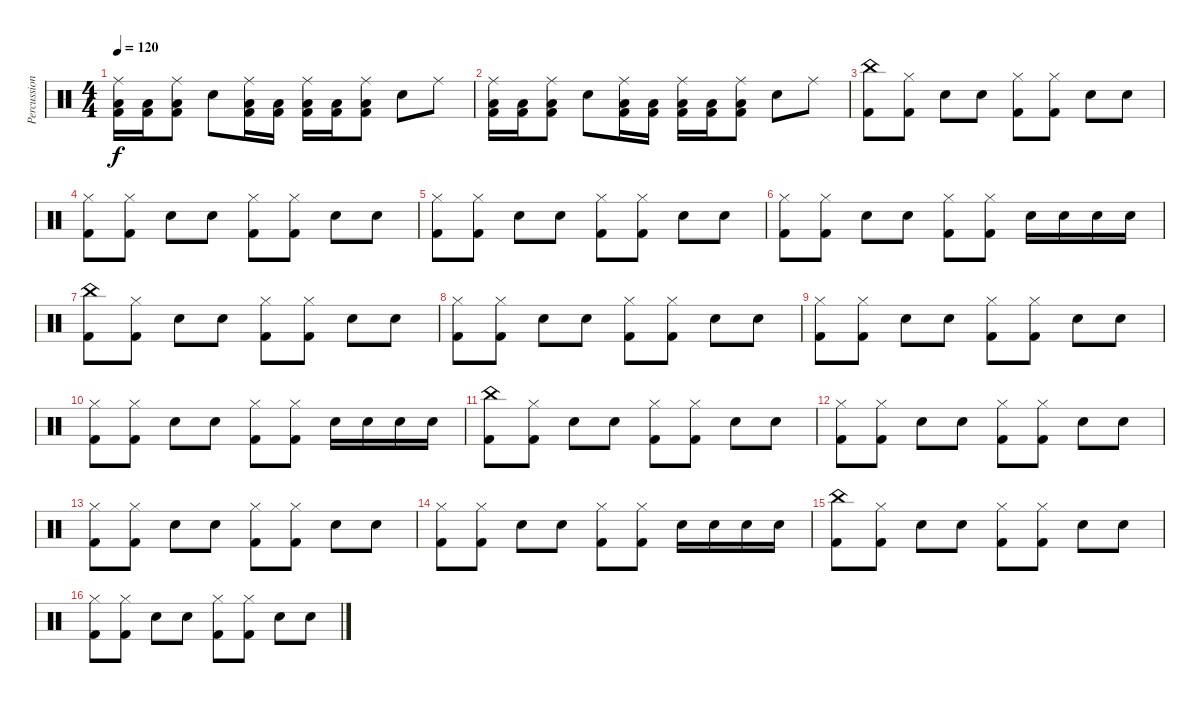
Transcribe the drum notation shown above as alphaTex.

\track ("Percussion" "Percussion") {instrument percussion}
\staff {score}
\articulation defaults
\ts (4 4)
\tempo 120
\clef neutral
\ks c
("Ride (middle)" "Low Floor Tom (hit)" "Kick (hit) 2").16{dy f} ("Low Floor Tom (hit)" "Kick (hit) 2").16 ("Ride (middle)" "Low Floor Tom (hit)" "Kick (hit) 2").8 "Electric Snare (hit)".8 ("Ride (middle)" "Low Floor Tom (hit)" "Kick (hit) 2").16 ("Low Floor Tom (hit)" "Kick (hit) 2").16 ("Ride (middle)" "Low Floor Tom (hit)" "Kick (hit) 2").16 ("Low Floor Tom (hit)" "Kick (hit) 2").16 ("Ride (middle)" "Low Floor Tom (hit)" "Kick (hit) 2").8 "Electric Snare (hit)".8 "Ride (middle)".8 |
("Ride (middle)" "Low Floor Tom (hit)" "Kick (hit) 2").16 ("Low Floor Tom (hit)" "Kick (hit) 2").16 ("Ride (middle)" "Low Floor Tom (hit)" "Kick (hit) 2").8 "Electric Snare (hit)".8 ("Ride (middle)" "Low Floor Tom (hit)" "Kick (hit) 2").16 ("Low Floor Tom (hit)" "Kick (hit) 2").16 ("Ride (middle)" "Low Floor Tom (hit)" "Kick (hit) 2").16 ("Low Floor Tom (hit)" "Kick (hit) 2").16 ("Ride (middle)" "Low Floor Tom (hit)" "Kick (hit) 2").8 "Electric Snare (hit)".8 "Ride (middle)".8 |
("China (hit)" "Kick (hit) 2").8 ("Hi-Hat (closed)" "Kick (hit) 2").8 "Electric Snare (hit)".8 "Electric Snare (hit)".8 ("Hi-Hat (closed)" "Kick (hit) 2").8 ("Hi-Hat (closed)" "Kick (hit) 2").8 "Electric Snare (hit)".8 "Electric Snare (hit)".8 |
("Hi-Hat (closed)" "Kick (hit) 2").8 ("Hi-Hat (closed)" "Kick (hit) 2").8 "Electric Snare (hit)".8 "Electric Snare (hit)".8 ("Hi-Hat (closed)" "Kick (hit) 2").8 ("Hi-Hat (closed)" "Kick (hit) 2").8 "Electric Snare (hit)".8 "Electric Snare (hit)".8 |
("Hi-Hat (closed)" "Kick (hit) 2").8 ("Hi-Hat (closed)" "Kick (hit) 2").8 "Electric Snare (hit)".8 "Electric Snare (hit)".8 ("Hi-Hat (closed)" "Kick (hit) 2").8 ("Hi-Hat (closed)" "Kick (hit) 2").8 "Electric Snare (hit)".8 "Electric Snare (hit)".8 |
("Hi-Hat (closed)" "Kick (hit) 2").8 ("Hi-Hat (closed)" "Kick (hit) 2").8 "Electric Snare (hit)".8 "Electric Snare (hit)".8 ("Hi-Hat (closed)" "Kick (hit) 2").8 ("Hi-Hat (closed)" "Kick (hit) 2").8 "Electric Snare (hit)".16 "Electric Snare (hit)".16 "Electric Snare (hit)".16 "Electric Snare (hit)".16 |
("China (hit)" "Kick (hit) 2").8 ("Hi-Hat (closed)" "Kick (hit) 2").8 "Electric Snare (hit)".8 "Electric Snare (hit)".8 ("Hi-Hat (closed)" "Kick (hit) 2").8 ("Hi-Hat (closed)" "Kick (hit) 2").8 "Electric Snare (hit)".8 "Electric Snare (hit)".8 |
("Hi-Hat (closed)" "Kick (hit) 2").8 ("Hi-Hat (closed)" "Kick (hit) 2").8 "Electric Snare (hit)".8 "Electric Snare (hit)".8 ("Hi-Hat (closed)" "Kick (hit) 2").8 ("Hi-Hat (closed)" "Kick (hit) 2").8 "Electric Snare (hit)".8 "Electric Snare (hit)".8 |
("Hi-Hat (closed)" "Kick (hit) 2").8 ("Hi-Hat (closed)" "Kick (hit) 2").8 "Electric Snare (hit)".8 "Electric Snare (hit)".8 ("Hi-Hat (closed)" "Kick (hit) 2").8 ("Hi-Hat (closed)" "Kick (hit) 2").8 "Electric Snare (hit)".8 "Electric Snare (hit)".8 |
("Hi-Hat (closed)" "Kick (hit) 2").8 ("Hi-Hat (closed)" "Kick (hit) 2").8 "Electric Snare (hit)".8 "Electric Snare (hit)".8 ("Hi-Hat (closed)" "Kick (hit) 2").8 ("Hi-Hat (closed)" "Kick (hit) 2").8 "Electric Snare (hit)".16 "Electric Snare (hit)".16 "Electric Snare (hit)".16 "Electric Snare (hit)".16 |
("China (hit)" "Kick (hit) 2").8 ("Hi-Hat (closed)" "Kick (hit) 2").8 "Electric Snare (hit)".8 "Electric Snare (hit)".8 ("Hi-Hat (closed)" "Kick (hit) 2").8 ("Hi-Hat (closed)" "Kick (hit) 2").8 "Electric Snare (hit)".8 "Electric Snare (hit)".8 |
("Hi-Hat (closed)" "Kick (hit) 2").8 ("Hi-Hat (closed)" "Kick (hit) 2").8 "Electric Snare (hit)".8 "Electric Snare (hit)".8 ("Hi-Hat (closed)" "Kick (hit) 2").8 ("Hi-Hat (closed)" "Kick (hit) 2").8 "Electric Snare (hit)".8 "Electric Snare (hit)".8 |
("Hi-Hat (closed)" "Kick (hit) 2").8 ("Hi-Hat (closed)" "Kick (hit) 2").8 "Electric Snare (hit)".8 "Electric Snare (hit)".8 ("Hi-Hat (closed)" "Kick (hit) 2").8 ("Hi-Hat (closed)" "Kick (hit) 2").8 "Electric Snare (hit)".8 "Electric Snare (hit)".8 |
("Hi-Hat (closed)" "Kick (hit) 2").8 ("Hi-Hat (closed)" "Kick (hit) 2").8 "Electric Snare (hit)".8 "Electric Snare (hit)".8 ("Hi-Hat (closed)" "Kick (hit) 2").8 ("Hi-Hat (closed)" "Kick (hit) 2").8 "Electric Snare (hit)".16 "Electric Snare (hit)".16 "Electric Snare (hit)".16 "Electric Snare (hit)".16 |
("China (hit)" "Kick (hit) 2").8 ("Hi-Hat (closed)" "Kick (hit) 2").8 "Electric Snare (hit)".8 "Electric Snare (hit)".8 ("Hi-Hat (closed)" "Kick (hit) 2").8 ("Hi-Hat (closed)" "Kick (hit) 2").8 "Electric Snare (hit)".8 "Electric Snare (hit)".8 |
("Hi-Hat (closed)" "Kick (hit) 2").8 ("Hi-Hat (closed)" "Kick (hit) 2").8 "Electric Snare (hit)".8 "Electric Snare (hit)".8 ("Hi-Hat (closed)" "Kick (hit) 2").8 ("Hi-Hat (closed)" "Kick (hit) 2").8 "Electric Snare (hit)".8 "Electric Snare (hit)".8
